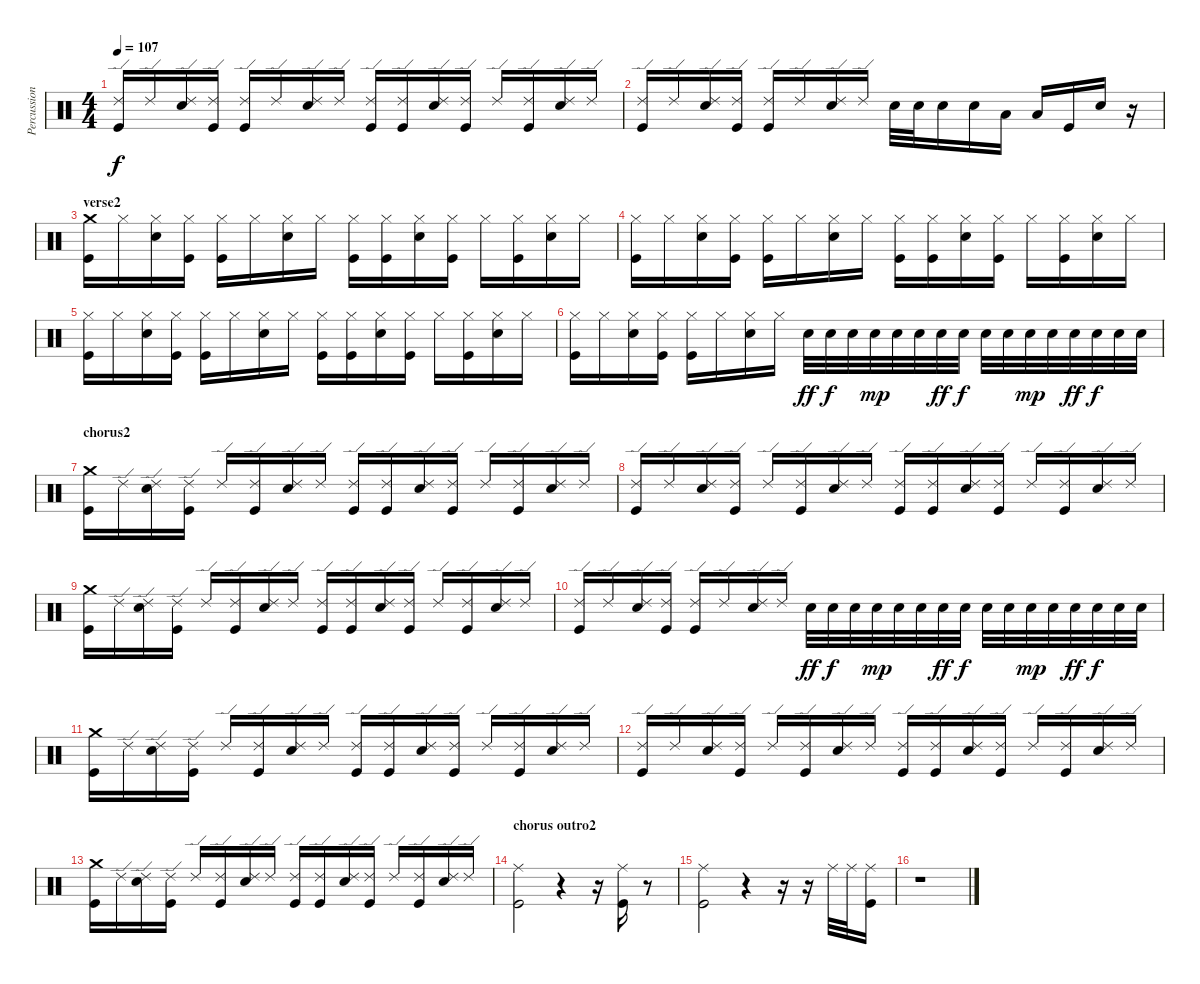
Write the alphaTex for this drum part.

\track ("Percussion" "Percussion") {instrument percussion}
\staff {score}
\articulation defaults
\ts (4 4)
\tempo 107
\clef neutral
\ks c
("Ride (edge) 2" "Kick (hit)").16{dy f} "Ride (edge) 2".16 ("Ride (edge) 2" "Electric Snare (hit)").16 ("Ride (edge) 2" "Kick (hit)").16 ("Ride (edge) 2" "Kick (hit)").16 "Ride (edge) 2".16 ("Ride (edge) 2" "Electric Snare (hit)").16 "Ride (edge) 2".16 ("Ride (edge) 2" "Kick (hit)").16 ("Ride (edge) 2" "Kick (hit)").16 ("Ride (edge) 2" "Electric Snare (hit)").16 ("Ride (edge) 2" "Kick (hit)").16 "Ride (edge) 2".16 ("Ride (edge) 2" "Kick (hit)").16 ("Ride (edge) 2" "Electric Snare (hit)").16 "Ride (edge) 2".16 |
("Ride (edge) 2" "Kick (hit)").16 "Ride (edge) 2".16 ("Ride (edge) 2" "Electric Snare (hit)").16 ("Ride (edge) 2" "Kick (hit)").16 ("Ride (edge) 2" "Kick (hit)").16 "Ride (edge) 2".16 ("Ride (edge) 2" "Electric Snare (hit)").16 "Ride (edge) 2".16 "Electric Snare (hit)".32 "Electric Snare (hit)".32 "Electric Snare (hit)".16 "Electric Snare (hit)".16 "Low Tom (hit)".16 "Low Tom (hit)".16 "Kick (hit)".16 "Electric Snare (hit)".16 r.16 |
\section ("" "verse2")
("Crash medium (hit)" "Kick (hit)").16 "Hi-Hat (closed)".16 ("Hi-Hat (closed)" "Electric Snare (hit)").16 ("Hi-Hat (closed)" "Kick (hit)").16 ("Hi-Hat (closed)" "Kick (hit)").16 "Hi-Hat (closed)".16 ("Hi-Hat (closed)" "Electric Snare (hit)").16 "Hi-Hat (closed)".16 ("Hi-Hat (closed)" "Kick (hit)").16 ("Hi-Hat (closed)" "Kick (hit)").16 ("Hi-Hat (closed)" "Electric Snare (hit)").16 ("Hi-Hat (closed)" "Kick (hit)").16 "Hi-Hat (closed)".16 ("Hi-Hat (closed)" "Kick (hit)").16 ("Hi-Hat (closed)" "Electric Snare (hit)").16 "Hi-Hat (closed)".16 |
("Hi-Hat (closed)" "Kick (hit)").16 "Hi-Hat (closed)".16 ("Hi-Hat (closed)" "Electric Snare (hit)").16 ("Hi-Hat (closed)" "Kick (hit)").16 ("Hi-Hat (closed)" "Kick (hit)").16 "Hi-Hat (closed)".16 ("Hi-Hat (closed)" "Electric Snare (hit)").16 "Hi-Hat (closed)".16 ("Hi-Hat (closed)" "Kick (hit)").16 ("Hi-Hat (closed)" "Kick (hit)").16 ("Hi-Hat (closed)" "Electric Snare (hit)").16 ("Hi-Hat (closed)" "Kick (hit)").16 "Hi-Hat (closed)".16 ("Hi-Hat (closed)" "Kick (hit)").16 ("Hi-Hat (closed)" "Electric Snare (hit)").16 "Hi-Hat (closed)".16 |
("Hi-Hat (closed)" "Kick (hit)").16 "Hi-Hat (closed)".16 ("Hi-Hat (closed)" "Electric Snare (hit)").16 ("Hi-Hat (closed)" "Kick (hit)").16 ("Hi-Hat (closed)" "Kick (hit)").16 "Hi-Hat (closed)".16 ("Hi-Hat (closed)" "Electric Snare (hit)").16 "Hi-Hat (closed)".16 ("Hi-Hat (closed)" "Kick (hit)").16 ("Hi-Hat (closed)" "Kick (hit)").16 ("Hi-Hat (closed)" "Electric Snare (hit)").16 ("Hi-Hat (closed)" "Kick (hit)").16 "Hi-Hat (closed)".16 ("Hi-Hat (closed)" "Kick (hit)").16 ("Hi-Hat (closed)" "Electric Snare (hit)").16 "Hi-Hat (closed)".16 |
("Hi-Hat (closed)" "Kick (hit)").16 "Hi-Hat (closed)".16 ("Hi-Hat (closed)" "Electric Snare (hit)").16 ("Hi-Hat (closed)" "Kick (hit)").16 ("Hi-Hat (closed)" "Kick (hit)").16 "Hi-Hat (closed)".16 ("Hi-Hat (closed)" "Electric Snare (hit)").16 "Hi-Hat (closed)".16 "Electric Snare (hit)".32{dy ff} "Electric Snare (hit)".32{dy f} "Electric Snare (hit)".32 "Electric Snare (hit)".32{dy mp} "Electric Snare (hit)".32 "Electric Snare (hit)".32 "Electric Snare (hit)".32{dy ff} "Electric Snare (hit)".32{dy f} "Electric Snare (hit)".32 "Electric Snare (hit)".32 "Electric Snare (hit)".32{dy mp} "Electric Snare (hit)".32 "Electric Snare (hit)".32{dy ff} "Electric Snare (hit)".32{dy f} "Electric Snare (hit)".32 "Electric Snare (hit)".32 |
\section ("" "chorus2")
("Crash medium (hit)" "Kick (hit)").16 "Ride (edge) 2".16 ("Ride (edge) 2" "Electric Snare (hit)").16 ("Ride (edge) 2" "Kick (hit)").16 "Ride (edge) 2".16 ("Ride (edge) 2" "Kick (hit)").16 ("Ride (edge) 2" "Electric Snare (hit)").16 "Ride (edge) 2".16 ("Ride (edge) 2" "Kick (hit)").16 ("Ride (edge) 2" "Kick (hit)").16 ("Ride (edge) 2" "Electric Snare (hit)").16 ("Ride (edge) 2" "Kick (hit)").16 "Ride (edge) 2".16 ("Ride (edge) 2" "Kick (hit)").16 ("Ride (edge) 2" "Electric Snare (hit)").16 "Ride (edge) 2".16 |
("Ride (edge) 2" "Kick (hit)").16 "Ride (edge) 2".16 ("Ride (edge) 2" "Electric Snare (hit)").16 ("Ride (edge) 2" "Kick (hit)").16 "Ride (edge) 2".16 ("Ride (edge) 2" "Kick (hit)").16 ("Ride (edge) 2" "Electric Snare (hit)").16 "Ride (edge) 2".16 ("Ride (edge) 2" "Kick (hit)").16 ("Ride (edge) 2" "Kick (hit)").16 ("Ride (edge) 2" "Electric Snare (hit)").16 ("Ride (edge) 2" "Kick (hit)").16 "Ride (edge) 2".16 ("Ride (edge) 2" "Kick (hit)").16 ("Ride (edge) 2" "Electric Snare (hit)").16 "Ride (edge) 2".16 |
("Crash medium (hit)" "Kick (hit)").16 "Ride (edge) 2".16 ("Ride (edge) 2" "Electric Snare (hit)").16 ("Ride (edge) 2" "Kick (hit)").16 "Ride (edge) 2".16 ("Ride (edge) 2" "Kick (hit)").16 ("Ride (edge) 2" "Electric Snare (hit)").16 "Ride (edge) 2".16 ("Ride (edge) 2" "Kick (hit)").16 ("Ride (edge) 2" "Kick (hit)").16 ("Ride (edge) 2" "Electric Snare (hit)").16 ("Ride (edge) 2" "Kick (hit)").16 "Ride (edge) 2".16 ("Ride (edge) 2" "Kick (hit)").16 ("Ride (edge) 2" "Electric Snare (hit)").16 "Ride (edge) 2".16 |
("Ride (edge) 2" "Kick (hit)").16 "Ride (edge) 2".16 ("Ride (edge) 2" "Electric Snare (hit)").16 ("Ride (edge) 2" "Kick (hit)").16 ("Ride (edge) 2" "Kick (hit)").16 "Ride (edge) 2".16 ("Ride (edge) 2" "Electric Snare (hit)").16 "Ride (edge) 2".16 "Electric Snare (hit)".32{dy ff} "Electric Snare (hit)".32{dy f} "Electric Snare (hit)".32 "Electric Snare (hit)".32{dy mp} "Electric Snare (hit)".32 "Electric Snare (hit)".32 "Electric Snare (hit)".32{dy ff} "Electric Snare (hit)".32{dy f} "Electric Snare (hit)".32 "Electric Snare (hit)".32 "Electric Snare (hit)".32{dy mp} "Electric Snare (hit)".32 "Electric Snare (hit)".32{dy ff} "Electric Snare (hit)".32{dy f} "Electric Snare (hit)".32 "Electric Snare (hit)".32 |
("Crash medium (hit)" "Kick (hit)").16 "Ride (edge) 2".16 ("Ride (edge) 2" "Electric Snare (hit)").16 ("Ride (edge) 2" "Kick (hit)").16 "Ride (edge) 2".16 ("Ride (edge) 2" "Kick (hit)").16 ("Ride (edge) 2" "Electric Snare (hit)").16 "Ride (edge) 2".16 ("Ride (edge) 2" "Kick (hit)").16 ("Ride (edge) 2" "Kick (hit)").16 ("Ride (edge) 2" "Electric Snare (hit)").16 ("Ride (edge) 2" "Kick (hit)").16 "Ride (edge) 2".16 ("Ride (edge) 2" "Kick (hit)").16 ("Ride (edge) 2" "Electric Snare (hit)").16 "Ride (edge) 2".16 |
("Ride (edge) 2" "Kick (hit)").16 "Ride (edge) 2".16 ("Ride (edge) 2" "Electric Snare (hit)").16 ("Ride (edge) 2" "Kick (hit)").16 "Ride (edge) 2".16 ("Ride (edge) 2" "Kick (hit)").16 ("Ride (edge) 2" "Electric Snare (hit)").16 "Ride (edge) 2".16 ("Ride (edge) 2" "Kick (hit)").16 ("Ride (edge) 2" "Kick (hit)").16 ("Ride (edge) 2" "Electric Snare (hit)").16 ("Ride (edge) 2" "Kick (hit)").16 "Ride (edge) 2".16 ("Ride (edge) 2" "Kick (hit)").16 ("Ride (edge) 2" "Electric Snare (hit)").16 "Ride (edge) 2".16 |
("Crash medium (hit)" "Kick (hit)").16 "Ride (edge) 2".16 ("Ride (edge) 2" "Electric Snare (hit)").16 ("Ride (edge) 2" "Kick (hit)").16 "Ride (edge) 2".16 ("Ride (edge) 2" "Kick (hit)").16 ("Ride (edge) 2" "Electric Snare (hit)").16 "Ride (edge) 2".16 ("Ride (edge) 2" "Kick (hit)").16 ("Ride (edge) 2" "Kick (hit)").16 ("Ride (edge) 2" "Electric Snare (hit)").16 ("Ride (edge) 2" "Kick (hit)").16 "Ride (edge) 2".16 ("Ride (edge) 2" "Kick (hit)").16 ("Ride (edge) 2" "Electric Snare (hit)").16 "Ride (edge) 2".16 |
\section ("" "chorus outro2")
("Ride (middle)" "Kick (hit)").2 r.4 r.16 ("Ride (middle)" "Kick (hit)").16 r.8 |
("Ride (middle)" "Kick (hit)").2 r.4 r.16 r.16 "Ride (middle)".32 "Ride (middle)".32 ("Ride (middle)" "Kick (hit)").16 |
r.1
